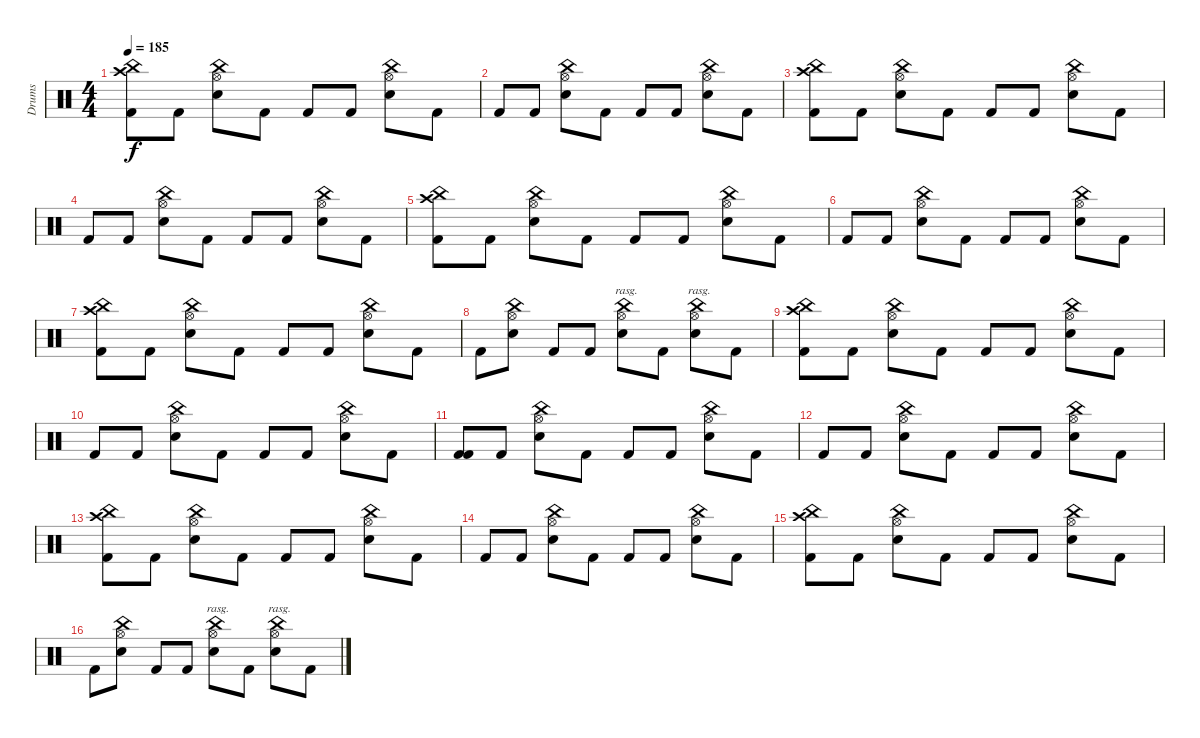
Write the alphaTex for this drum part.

\track ("Drums" "Drums") {instrument percussion}
\staff {score}
\articulation defaults
\ts (4 4)
\tempo 185
\clef neutral
\ks c
("Crash high (hit)" "China (hit)" "Kick (hit) 2").8{dy f} "Kick (hit) 2".8 ("China (hit)" "Hi-Hat (open)" "Snare (hit) 2").8 "Kick (hit) 2".8 "Kick (hit) 2".8 "Kick (hit) 2".8 ("China (hit)" "Hi-Hat (open)" "Snare (hit) 2").8 "Kick (hit) 2".8 |
"Kick (hit) 2".8 "Kick (hit) 2".8 ("China (hit)" "Hi-Hat (open)" "Snare (hit) 2").8 "Kick (hit) 2".8 "Kick (hit) 2".8 "Kick (hit) 2".8 ("China (hit)" "Hi-Hat (open)" "Snare (hit) 2").8 "Kick (hit) 2".8 |
("Crash high (hit)" "China (hit)" "Kick (hit) 2").8 "Kick (hit) 2".8 ("China (hit)" "Hi-Hat (open)" "Snare (hit) 2").8 "Kick (hit) 2".8 "Kick (hit) 2".8 "Kick (hit) 2".8 ("China (hit)" "Hi-Hat (open)" "Snare (hit) 2").8 "Kick (hit) 2".8 |
"Kick (hit) 2".8 "Kick (hit) 2".8 ("China (hit)" "Hi-Hat (open)" "Snare (hit) 2").8 "Kick (hit) 2".8 "Kick (hit) 2".8 "Kick (hit) 2".8 ("China (hit)" "Hi-Hat (open)" "Snare (hit) 2").8 "Kick (hit) 2".8 |
("Crash high (hit)" "China (hit)" "Kick (hit) 2").8 "Kick (hit) 2".8 ("China (hit)" "Hi-Hat (open)" "Snare (hit) 2").8 "Kick (hit) 2".8 "Kick (hit) 2".8 "Kick (hit) 2".8 ("China (hit)" "Hi-Hat (open)" "Snare (hit) 2").8 "Kick (hit) 2".8 |
"Kick (hit) 2".8 "Kick (hit) 2".8 ("China (hit)" "Hi-Hat (open)" "Snare (hit) 2").8 "Kick (hit) 2".8 "Kick (hit) 2".8 "Kick (hit) 2".8 ("China (hit)" "Hi-Hat (open)" "Snare (hit) 2").8 "Kick (hit) 2".8 |
("Crash high (hit)" "China (hit)" "Kick (hit) 2").8 "Kick (hit) 2".8 ("China (hit)" "Hi-Hat (open)" "Snare (hit) 2").8 "Kick (hit) 2".8 "Kick (hit) 2".8 "Kick (hit) 2".8 ("China (hit)" "Hi-Hat (open)" "Snare (hit) 2").8 "Kick (hit) 2".8 |
"Kick (hit) 2".8 ("China (hit)" "Hi-Hat (open)" "Snare (hit) 2").8 "Kick (hit) 2".8 "Kick (hit) 2".8 ("China (hit)" "Hi-Hat (open)" "Snare (hit) 2").8{bd 120 rasg ii} "Kick (hit) 2".8 ("China (hit)" "Hi-Hat (open)" "Snare (hit) 2").8{bd 120 rasg ii} "Kick (hit) 2".8 |
("Crash high (hit)" "China (hit)" "Kick (hit) 2").8 "Kick (hit) 2".8 ("China (hit)" "Hi-Hat (open)" "Snare (hit) 2").8 "Kick (hit) 2".8 "Kick (hit) 2".8 "Kick (hit) 2".8 ("China (hit)" "Hi-Hat (open)" "Snare (hit) 2").8 "Kick (hit) 2".8 |
"Kick (hit) 2".8 "Kick (hit) 2".8 ("China (hit)" "Hi-Hat (open)" "Snare (hit) 2").8 "Kick (hit) 2".8 "Kick (hit) 2".8 "Kick (hit) 2".8 ("China (hit)" "Hi-Hat (open)" "Snare (hit) 2").8 "Kick (hit) 2".8 |
("Kick (hit) 2" "Kick (hit) 2").8 "Kick (hit) 2".8 ("China (hit)" "Hi-Hat (open)" "Snare (hit) 2").8 "Kick (hit) 2".8 "Kick (hit) 2".8 "Kick (hit) 2".8 ("China (hit)" "Hi-Hat (open)" "Snare (hit) 2").8 "Kick (hit) 2".8 |
"Kick (hit) 2".8 "Kick (hit) 2".8 ("China (hit)" "Hi-Hat (open)" "Snare (hit) 2").8 "Kick (hit) 2".8 "Kick (hit) 2".8 "Kick (hit) 2".8 ("China (hit)" "Hi-Hat (open)" "Snare (hit) 2").8 "Kick (hit) 2".8 |
("Crash high (hit)" "China (hit)" "Kick (hit) 2").8 "Kick (hit) 2".8 ("China (hit)" "Hi-Hat (open)" "Snare (hit) 2").8 "Kick (hit) 2".8 "Kick (hit) 2".8 "Kick (hit) 2".8 ("China (hit)" "Hi-Hat (open)" "Snare (hit) 2").8 "Kick (hit) 2".8 |
"Kick (hit) 2".8 "Kick (hit) 2".8 ("China (hit)" "Hi-Hat (open)" "Snare (hit) 2").8 "Kick (hit) 2".8 "Kick (hit) 2".8 "Kick (hit) 2".8 ("China (hit)" "Hi-Hat (open)" "Snare (hit) 2").8 "Kick (hit) 2".8 |
("Crash high (hit)" "China (hit)" "Kick (hit) 2").8 "Kick (hit) 2".8 ("China (hit)" "Hi-Hat (open)" "Snare (hit) 2").8 "Kick (hit) 2".8 "Kick (hit) 2".8 "Kick (hit) 2".8 ("China (hit)" "Hi-Hat (open)" "Snare (hit) 2").8 "Kick (hit) 2".8 |
"Kick (hit) 2".8 ("China (hit)" "Hi-Hat (open)" "Snare (hit) 2").8 "Kick (hit) 2".8 "Kick (hit) 2".8 ("China (hit)" "Hi-Hat (open)" "Snare (hit) 2").8{bd 120 rasg ii} "Kick (hit) 2".8 ("China (hit)" "Hi-Hat (open)" "Snare (hit) 2").8{bd 120 rasg ii} "Kick (hit) 2".8
